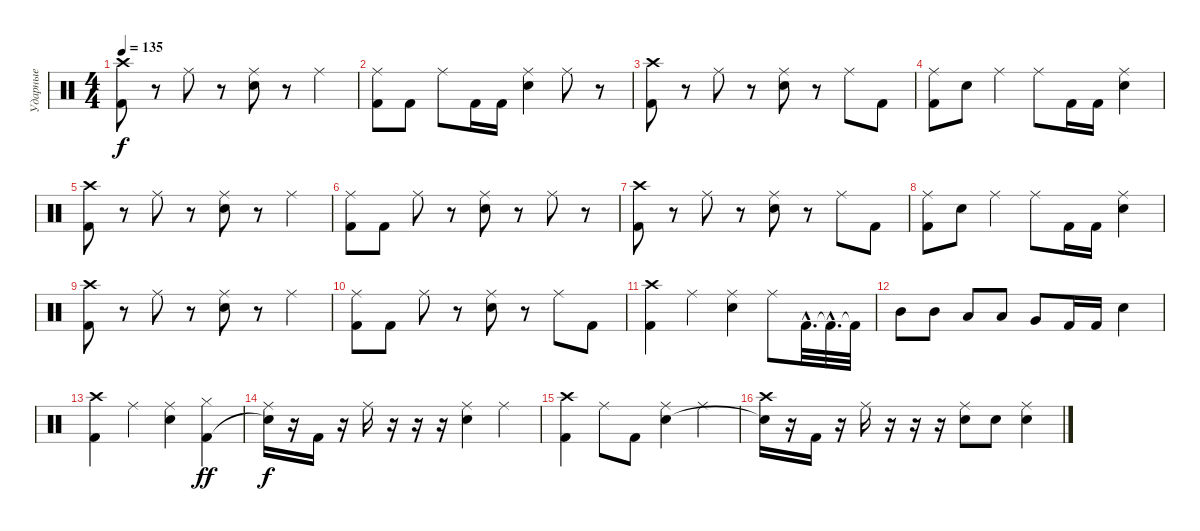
\track ("Ударные" "Ударные") {instrument percussion}
\staff {score}
\articulation defaults
\ts (4 4)
\tempo 135
\clef neutral
\ks c
("Crash high (hit)" "Kick (hit) 2").8{dy f} r.8 "Ride (middle)".8 r.8 ("Ride (middle)" "Electric Snare (hit)").8 r.8 "Ride (middle)".4 |
("Ride (middle)" "Kick (hit) 2").8 "Kick (hit) 2".8 "Ride (middle)".8 "Kick (hit) 2".16 "Kick (hit) 2".16 ("Ride (middle)" "Electric Snare (hit)").4 "Ride (middle)".8 r.8 |
("Crash high (hit)" "Kick (hit) 2").8 r.8 "Ride (middle)".8 r.8 ("Ride (middle)" "Electric Snare (hit)").8 r.8 "Ride (middle)".8 "Kick (hit) 2".8 |
("Ride (middle)" "Kick (hit) 2").8 "Electric Snare (hit)".8 "Ride (middle)".4 "Ride (middle)".8 "Kick (hit) 2".16 "Kick (hit) 2".16 ("Ride (middle)" "Electric Snare (hit)").4 |
("Crash high (hit)" "Kick (hit) 2").8 r.8 "Ride (middle)".8 r.8 ("Ride (middle)" "Electric Snare (hit)").8 r.8 "Ride (middle)".4 |
("Ride (middle)" "Kick (hit) 2").8 "Kick (hit) 2".8 "Ride (middle)".8 r.8 ("Ride (middle)" "Electric Snare (hit)").8 r.8 "Ride (middle)".8 r.8 |
("Crash high (hit)" "Kick (hit) 2").8 r.8 "Ride (middle)".8 r.8 ("Ride (middle)" "Electric Snare (hit)").8 r.8 "Ride (middle)".8 "Kick (hit) 2".8 |
("Ride (middle)" "Kick (hit) 2").8 "Electric Snare (hit)".8 "Ride (middle)".4 "Ride (middle)".8 "Kick (hit) 2".16 "Kick (hit) 2".16 ("Ride (middle)" "Electric Snare (hit)").4 |
("Crash high (hit)" "Kick (hit) 2").8 r.8 "Ride (middle)".8 r.8 ("Ride (middle)" "Electric Snare (hit)").8 r.8 "Ride (middle)".4 |
("Ride (middle)" "Kick (hit) 2").8 "Kick (hit) 2".8 "Ride (middle)".8 r.8 ("Ride (middle)" "Electric Snare (hit)").8 r.8 "Ride (middle)".8 "Kick (hit) 2".8 |
("Crash high (hit)" "Kick (hit) 2").4 "Ride (middle)".4 ("Ride (middle)" "Electric Snare (hit)").4 "Ride (middle)".8 "Kick (hit) 2"{hac}.32{d} "Kick (hit) 2"{hac t}.32{d} "Kick (hit) 2"{t}.32 |
"Mid Tom (hit)".8 "Mid Tom (hit)".8 "Low Tom (hit)".8 "Low Tom (hit)".8 "Very Low Tom (hit)".8 "Kick (hit) 2".16 "Kick (hit) 2".16 "Electric Snare (hit)".4 |
("Crash high (hit)" "Kick (hit) 2").4 "Ride (middle)".4 ("Ride (middle)" "Electric Snare (hit)").4 ("Hi-Hat (closed)" "Kick (hit) 2").4{dy ff} |
("Ride (middle)" "Snare (hit)"{t}).16{dy f} r.16 "Kick (hit) 2".16 r.16 "Ride (middle)".16 r.16 r.16 r.16 ("Ride (middle)" "Electric Snare (hit)").4 "Ride (middle)".4 |
("Crash high (hit)" "Kick (hit) 2").4 "Ride (middle)".8 "Kick (hit) 2".8 ("Ride (middle)" "Electric Snare (hit)").4 "Ride (middle)".4 |
("Crash high (hit)" "Snare (hit)"{t}).16 r.16 "Kick (hit) 2".16 r.16 "Ride (middle)".16 r.16 r.16 r.16 ("Ride (middle)" "Electric Snare (hit)").8 "Electric Snare (hit)".8 ("Ride (middle)" "Electric Snare (hit)").4
